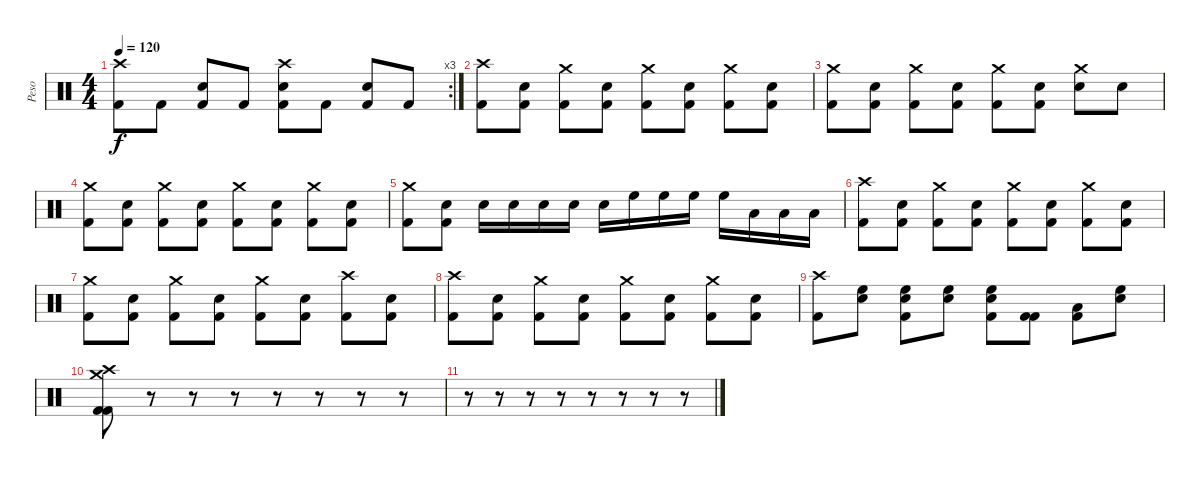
\track ("Peso" "Peso") {instrument percussion}
\staff {score}
\articulation defaults
\rc 3
\ts (4 4)
\tempo 120
\clef neutral
\ks c
("Crash high (hit)" "Kick (hit) 2").8{dy f} "Kick (hit) 2".8 ("Snare (hit) 2" "Kick (hit) 2").8 "Kick (hit) 2".8 ("Crash high (hit)" "Snare (hit) 2" "Kick (hit) 2").8 "Kick (hit) 2".8 ("Snare (hit) 2" "Kick (hit) 2").8 "Kick (hit) 2".8 |
("Crash high (hit)" "Kick (hit) 2").8 ("Snare (hit) 2" "Kick (hit) 2").8 ("Crash medium (hit)" "Kick (hit) 2").8 ("Snare (hit) 2" "Kick (hit) 2").8 ("Crash medium (hit)" "Kick (hit) 2").8 ("Snare (hit) 2" "Kick (hit) 2").8 ("Crash medium (hit)" "Kick (hit) 2").8 ("Snare (hit) 2" "Kick (hit) 2").8 |
("Crash medium (hit)" "Kick (hit) 2").8 ("Snare (hit) 2" "Kick (hit) 2").8 ("Crash medium (hit)" "Kick (hit) 2").8 ("Snare (hit) 2" "Kick (hit) 2").8 ("Crash medium (hit)" "Kick (hit) 2").8 ("Snare (hit) 2" "Kick (hit) 2").8 ("Crash medium (hit)" "Snare (hit) 2").8 "Snare (hit) 2".8 |
("Crash medium (hit)" "Kick (hit) 2").8 ("Snare (hit) 2" "Kick (hit) 2").8 ("Crash medium (hit)" "Kick (hit) 2").8 ("Snare (hit) 2" "Kick (hit) 2").8 ("Crash medium (hit)" "Kick (hit) 2").8 ("Snare (hit) 2" "Kick (hit) 2").8 ("Crash medium (hit)" "Kick (hit) 2").8 ("Snare (hit) 2" "Kick (hit) 2").8 |
("Crash medium (hit)" "Kick (hit) 2").8 ("Snare (hit) 2" "Kick (hit) 2").8 "Snare (hit) 2".16 "Snare (hit) 2".16 "Snare (hit) 2".16 "Snare (hit) 2".16 "Snare (hit) 2".16 "High Floor Tom (hit)".16 "High Floor Tom (hit)".16 "High Floor Tom (hit)".16 "High Floor Tom (hit)".16 "Low Floor Tom (hit)".16 "Low Floor Tom (hit)".16 "Low Floor Tom (hit)".16 |
("Crash high (hit)" "Kick (hit) 2").8 ("Snare (hit) 2" "Kick (hit) 2").8 ("Crash medium (hit)" "Kick (hit) 2").8 ("Snare (hit) 2" "Kick (hit) 2").8 ("Crash medium (hit)" "Kick (hit) 2").8 ("Snare (hit) 2" "Kick (hit) 2").8 ("Crash medium (hit)" "Kick (hit) 2").8 ("Snare (hit) 2" "Kick (hit) 2").8 |
("Crash medium (hit)" "Kick (hit) 2").8 ("Snare (hit) 2" "Kick (hit) 2").8 ("Crash medium (hit)" "Kick (hit) 2").8 ("Snare (hit) 2" "Kick (hit) 2").8 ("Crash medium (hit)" "Kick (hit) 2").8 ("Snare (hit) 2" "Kick (hit) 2").8 ("Crash high (hit)" "Kick (hit) 2").8 ("Snare (hit) 2" "Kick (hit) 2").8 |
("Crash high (hit)" "Kick (hit) 2").8 ("Snare (hit) 2" "Kick (hit) 2").8 ("Crash medium (hit)" "Kick (hit) 2").8 ("Snare (hit) 2" "Kick (hit) 2").8 ("Crash medium (hit)" "Kick (hit) 2").8 ("Snare (hit) 2" "Kick (hit) 2").8 ("Crash medium (hit)" "Kick (hit) 2").8 ("Snare (hit) 2" "Kick (hit) 2").8 |
("Crash high (hit)" "Kick (hit) 2").8 ("High Floor Tom (hit)" "Snare (hit) 2").8 ("High Floor Tom (hit)" "Snare (hit) 2" "Kick (hit) 2").8 ("High Floor Tom (hit)" "Snare (hit) 2").8 ("High Floor Tom (hit)" "Snare (hit) 2" "Kick (hit) 2").8 ("Kick (hit) 2" "Kick (hit) 2").8 ("Low Floor Tom (hit)" "Kick (hit) 2").8 ("High Floor Tom (hit)" "Snare (hit) 2").8 |
("Crash medium (hit)" "Crash high (hit)" "Kick (hit) 2" "Kick (hit) 2").8 r.8 r.8 r.8 r.8 r.8 r.8 r.8 |
r.8 r.8 r.8 r.8 r.8 r.8 r.8 r.8
